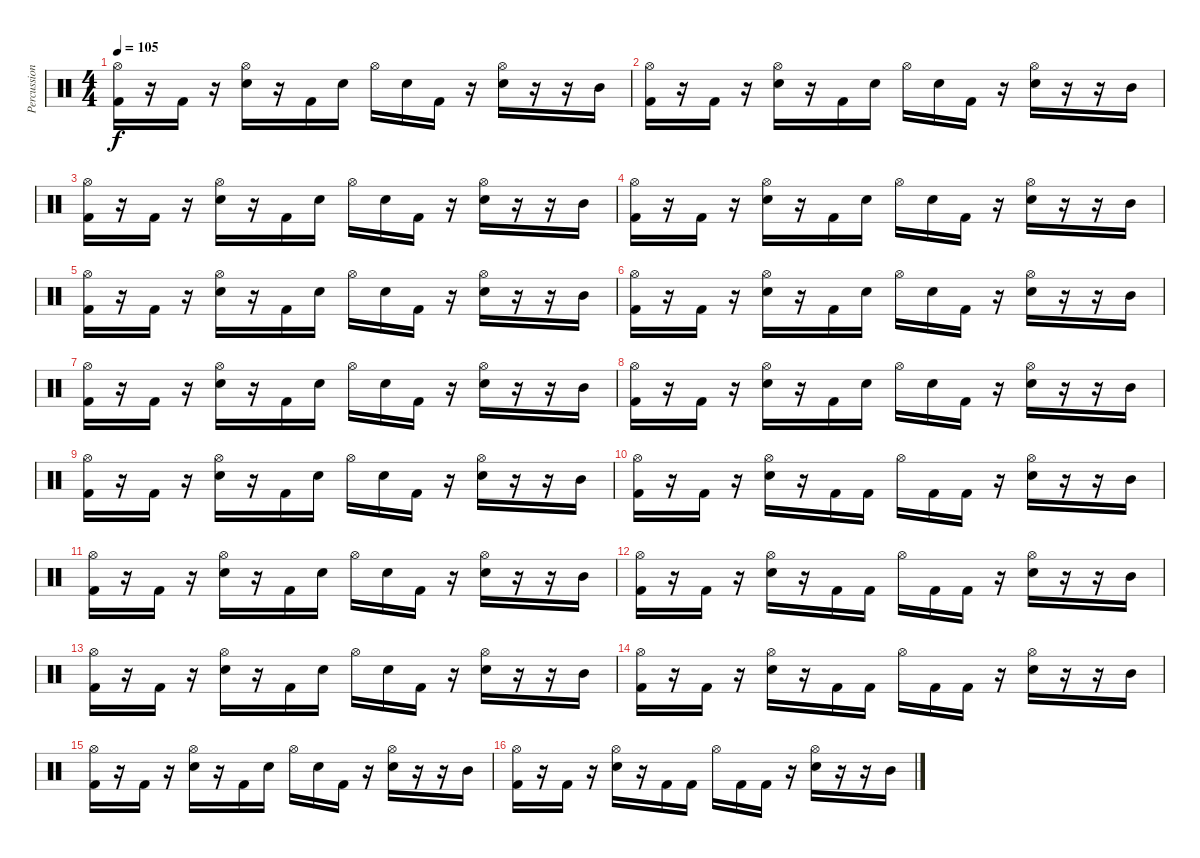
\track ("Percussion" "Percussion") {instrument percussion}
\staff {score}
\articulation defaults
\ts (4 4)
\tempo 105
\clef neutral
\ks c
("Hi-Hat (open)" "Kick (hit) 2").16{dy f} r.16 "Kick (hit) 2".16 r.16 ("Hi-Hat (open)" "Snare (hit) 2").16 r.16 "Kick (hit) 2".16 "Snare (hit) 2".16 "Hi-Hat (open)".16 "Snare (hit) 2".16 "Kick (hit) 2".16 r.16 ("Hi-Hat (open)" "Snare (hit) 2").16 r.16 r.16 "Mid Tom (hit)".16 |
("Hi-Hat (open)" "Kick (hit) 2").16 r.16 "Kick (hit) 2".16 r.16 ("Hi-Hat (open)" "Snare (hit) 2").16 r.16 "Kick (hit) 2".16 "Snare (hit) 2".16 "Hi-Hat (open)".16 "Snare (hit) 2".16 "Kick (hit) 2".16 r.16 ("Hi-Hat (open)" "Snare (hit) 2").16 r.16 r.16 "Mid Tom (hit)".16 |
("Hi-Hat (open)" "Kick (hit) 2").16 r.16 "Kick (hit) 2".16 r.16 ("Hi-Hat (open)" "Snare (hit) 2").16 r.16 "Kick (hit) 2".16 "Snare (hit) 2".16 "Hi-Hat (open)".16 "Snare (hit) 2".16 "Kick (hit) 2".16 r.16 ("Hi-Hat (open)" "Snare (hit) 2").16 r.16 r.16 "Mid Tom (hit)".16 |
("Hi-Hat (open)" "Kick (hit) 2").16 r.16 "Kick (hit) 2".16 r.16 ("Hi-Hat (open)" "Snare (hit) 2").16 r.16 "Kick (hit) 2".16 "Snare (hit) 2".16 "Hi-Hat (open)".16 "Snare (hit) 2".16 "Kick (hit) 2".16 r.16 ("Hi-Hat (open)" "Snare (hit) 2").16 r.16 r.16 "Mid Tom (hit)".16 |
("Hi-Hat (open)" "Kick (hit) 2").16 r.16 "Kick (hit) 2".16 r.16 ("Hi-Hat (open)" "Snare (hit) 2").16 r.16 "Kick (hit) 2".16 "Snare (hit) 2".16 "Hi-Hat (open)".16 "Snare (hit) 2".16 "Kick (hit) 2".16 r.16 ("Hi-Hat (open)" "Snare (hit) 2").16 r.16 r.16 "Mid Tom (hit)".16 |
("Hi-Hat (open)" "Kick (hit) 2").16 r.16 "Kick (hit) 2".16 r.16 ("Hi-Hat (open)" "Snare (hit) 2").16 r.16 "Kick (hit) 2".16 "Snare (hit) 2".16 "Hi-Hat (open)".16 "Snare (hit) 2".16 "Kick (hit) 2".16 r.16 ("Hi-Hat (open)" "Snare (hit) 2").16 r.16 r.16 "Mid Tom (hit)".16 |
("Hi-Hat (open)" "Kick (hit) 2").16 r.16 "Kick (hit) 2".16 r.16 ("Hi-Hat (open)" "Snare (hit) 2").16 r.16 "Kick (hit) 2".16 "Snare (hit) 2".16 "Hi-Hat (open)".16 "Snare (hit) 2".16 "Kick (hit) 2".16 r.16 ("Hi-Hat (open)" "Snare (hit) 2").16 r.16 r.16 "Mid Tom (hit)".16 |
("Hi-Hat (open)" "Kick (hit) 2").16 r.16 "Kick (hit) 2".16 r.16 ("Hi-Hat (open)" "Snare (hit) 2").16 r.16 "Kick (hit) 2".16 "Snare (hit) 2".16 "Hi-Hat (open)".16 "Snare (hit) 2".16 "Kick (hit) 2".16 r.16 ("Hi-Hat (open)" "Snare (hit) 2").16 r.16 r.16 "Mid Tom (hit)".16 |
("Hi-Hat (open)" "Kick (hit) 2").16 r.16 "Kick (hit) 2".16 r.16 ("Hi-Hat (open)" "Snare (hit) 2").16 r.16 "Kick (hit) 2".16 "Snare (hit) 2".16 "Hi-Hat (open)".16 "Snare (hit) 2".16 "Kick (hit) 2".16 r.16 ("Hi-Hat (open)" "Snare (hit) 2").16 r.16 r.16 "Mid Tom (hit)".16 |
("Hi-Hat (open)" "Kick (hit) 2").16 r.16 "Kick (hit) 2".16 r.16 ("Hi-Hat (open)" "Snare (hit) 2").16 r.16 "Kick (hit) 2".16 "Kick (hit) 2".16 "Hi-Hat (open)".16 "Kick (hit) 2".16 "Kick (hit) 2".16 r.16 ("Hi-Hat (open)" "Snare (hit) 2").16 r.16 r.16 "Mid Tom (hit)".16 |
("Hi-Hat (open)" "Kick (hit) 2").16 r.16 "Kick (hit) 2".16 r.16 ("Hi-Hat (open)" "Snare (hit) 2").16 r.16 "Kick (hit) 2".16 "Snare (hit) 2".16 "Hi-Hat (open)".16 "Snare (hit) 2".16 "Kick (hit) 2".16 r.16 ("Hi-Hat (open)" "Snare (hit) 2").16 r.16 r.16 "Mid Tom (hit)".16 |
("Hi-Hat (open)" "Kick (hit) 2").16 r.16 "Kick (hit) 2".16 r.16 ("Hi-Hat (open)" "Snare (hit) 2").16 r.16 "Kick (hit) 2".16 "Kick (hit) 2".16 "Hi-Hat (open)".16 "Kick (hit) 2".16 "Kick (hit) 2".16 r.16 ("Hi-Hat (open)" "Snare (hit) 2").16 r.16 r.16 "Mid Tom (hit)".16 |
("Hi-Hat (open)" "Kick (hit) 2").16 r.16 "Kick (hit) 2".16 r.16 ("Hi-Hat (open)" "Snare (hit) 2").16 r.16 "Kick (hit) 2".16 "Snare (hit) 2".16 "Hi-Hat (open)".16 "Snare (hit) 2".16 "Kick (hit) 2".16 r.16 ("Hi-Hat (open)" "Snare (hit) 2").16 r.16 r.16 "Mid Tom (hit)".16 |
("Hi-Hat (open)" "Kick (hit) 2").16 r.16 "Kick (hit) 2".16 r.16 ("Hi-Hat (open)" "Snare (hit) 2").16 r.16 "Kick (hit) 2".16 "Kick (hit) 2".16 "Hi-Hat (open)".16 "Kick (hit) 2".16 "Kick (hit) 2".16 r.16 ("Hi-Hat (open)" "Snare (hit) 2").16 r.16 r.16 "Mid Tom (hit)".16 |
("Hi-Hat (open)" "Kick (hit) 2").16 r.16 "Kick (hit) 2".16 r.16 ("Hi-Hat (open)" "Snare (hit) 2").16 r.16 "Kick (hit) 2".16 "Snare (hit) 2".16 "Hi-Hat (open)".16 "Snare (hit) 2".16 "Kick (hit) 2".16 r.16 ("Hi-Hat (open)" "Snare (hit) 2").16 r.16 r.16 "Mid Tom (hit)".16 |
("Hi-Hat (open)" "Kick (hit) 2").16 r.16 "Kick (hit) 2".16 r.16 ("Hi-Hat (open)" "Snare (hit) 2").16 r.16 "Kick (hit) 2".16 "Kick (hit) 2".16 "Hi-Hat (open)".16 "Kick (hit) 2".16 "Kick (hit) 2".16 r.16 ("Hi-Hat (open)" "Snare (hit) 2").16 r.16 r.16 "Mid Tom (hit)".16
